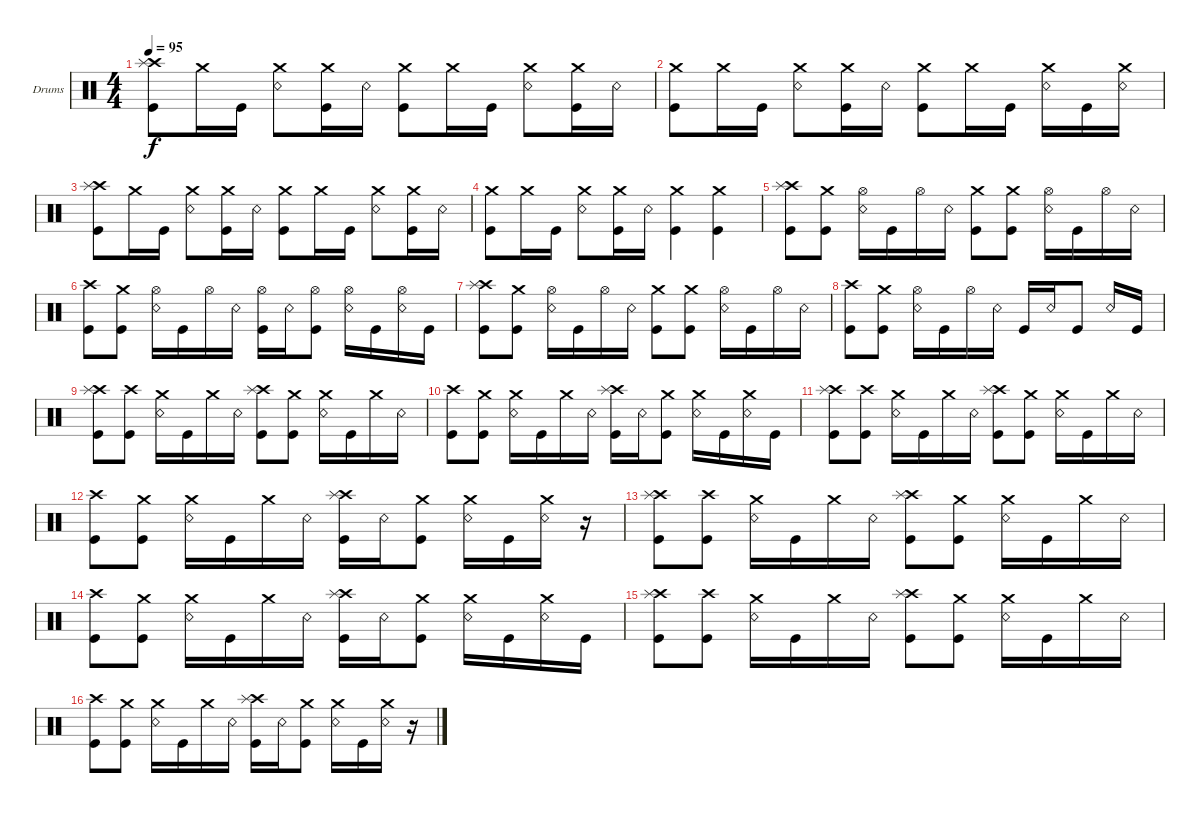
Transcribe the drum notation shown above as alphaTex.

\defaultSystemsLayout 4
\bracketExtendMode groupsimilarinstruments
\firstSystemTrackNameOrientation horizontal
\otherSystemsTrackNameOrientation horizontal
\track ("Drumkit" "Drums") {instrument percussion}
\staff {score}
\articulation defaults
\ts (4 4)
\tempo 95
\clef neutral
\ks c
("Kick (hit)" "Crash high (hit)" "Splash (hit)").8{dy f} "Crash medium (hit)".16 "Kick (hit)".16 ("Snare (rim shot)" "Crash medium (hit)").8 ("Kick (hit)" "Crash medium (hit)").16 "Snare (rim shot)".16 ("Kick (hit)" "Crash medium (hit)").8 "Crash medium (hit)".16 "Kick (hit)".16 ("Snare (rim shot)" "Crash medium (hit)").8 ("Kick (hit)" "Crash medium (hit)").16 "Snare (rim shot)".16 |
("Kick (hit)" "Crash medium (hit)").8 "Crash medium (hit)".16 "Kick (hit)".16 ("Snare (rim shot)" "Crash medium (hit)").8 ("Kick (hit)" "Crash medium (hit)").16 "Snare (rim shot)".16 ("Kick (hit)" "Crash medium (hit)").8 "Crash medium (hit)".16 "Kick (hit)".16 ("Snare (rim shot)" "Crash medium (hit)").16 "Kick (hit)".16 ("Snare (rim shot)" "Crash medium (hit)").16 |
("Kick (hit)" "Crash high (hit)" "Splash (hit)").8 "Crash medium (hit)".16 "Kick (hit)".16 ("Snare (rim shot)" "Crash medium (hit)").8 ("Kick (hit)" "Crash medium (hit)").16 "Snare (rim shot)".16 ("Kick (hit)" "Crash medium (hit)").8 "Crash medium (hit)".16 "Kick (hit)".16 ("Snare (rim shot)" "Crash medium (hit)").8 ("Kick (hit)" "Crash medium (hit)").16 "Snare (rim shot)".16 |
("Kick (hit)" "Crash medium (hit)").8 "Crash medium (hit)".16 "Kick (hit)".16 ("Snare (rim shot)" "Crash medium (hit)").8 ("Kick (hit)" "Crash medium (hit)").16 "Snare (rim shot)".16 ("Kick (hit)" "Crash medium (hit)").4 ("Kick (hit)" "Crash medium (hit)").4 |
("Kick (hit)" "Crash high (hit)" "Splash (hit)").8 ("Kick (hit)" "Crash medium (hit)").8 ("Snare (rim shot)" "Hi-Hat (open)").16 "Kick (hit)".16 "Hi-Hat (open)".16 "Snare (rim shot)".16 ("Kick (hit)" "Crash medium (hit)").8 ("Kick (hit)" "Crash medium (hit)").8 ("Snare (rim shot)" "Hi-Hat (open)").16 "Kick (hit)".16 "Hi-Hat (open)".16 "Snare (rim shot)".16 |
("Kick (hit)" "Crash high (hit)").8 ("Kick (hit)" "Crash medium (hit)").8 ("Snare (rim shot)" "Hi-Hat (open)").16 "Kick (hit)".16 "Hi-Hat (open)".16 "Snare (rim shot)".16 ("Kick (hit)" "Hi-Hat (open)").16 "Snare (rim shot)".16 ("Kick (hit)" "Hi-Hat (open)").8 ("Hi-Hat (open)" "Snare (rim shot)").16 "Kick (hit)".16 ("Hi-Hat (open)" "Snare (rim shot)").16 "Kick (hit)".16 |
("Kick (hit)" "Crash high (hit)" "Splash (hit)").8 ("Kick (hit)" "Crash medium (hit)").8 ("Snare (rim shot)" "Hi-Hat (open)").16 "Kick (hit)".16 "Hi-Hat (open)".16 "Snare (rim shot)".16 ("Kick (hit)" "Crash medium (hit)").8 ("Kick (hit)" "Crash medium (hit)").8 ("Snare (rim shot)" "Hi-Hat (open)").16 "Kick (hit)".16 "Hi-Hat (open)".16 "Snare (rim shot)".16 |
("Kick (hit)" "Crash high (hit)").8 ("Kick (hit)" "Crash medium (hit)").8 ("Snare (rim shot)" "Hi-Hat (open)").16 "Kick (hit)".16 "Hi-Hat (open)".16 "Snare (rim shot)".16 "Kick (hit)".16 "Snare (rim shot)".16 "Kick (hit)".8 "Snare (rim shot)".16 "Kick (hit)".16 |
("Kick (hit)" "Crash high (hit)" "Splash (hit)").8 ("Kick (hit)" "Crash high (hit)").8 ("Snare (rim shot)" "Crash medium (hit)").16 "Kick (hit)".16 "Crash medium (hit)".16 "Snare (rim shot)".16 ("Kick (hit)" "Crash high (hit)" "Splash (hit)").8 ("Kick (hit)" "Crash medium (hit)").8 ("Snare (rim shot)" "Crash medium (hit)").16 "Kick (hit)".16 "Crash medium (hit)".16 "Snare (rim shot)".16 |
("Kick (hit)" "Crash high (hit)").8 ("Kick (hit)" "Crash medium (hit)").8 ("Snare (rim shot)" "Crash medium (hit)").16 "Kick (hit)".16 "Crash medium (hit)".16 "Snare (rim shot)".16 ("Kick (hit)" "Crash high (hit)" "Splash (hit)").16 "Snare (rim shot)".16 ("Kick (hit)" "Crash medium (hit)").8 ("Snare (rim shot)" "Crash medium (hit)").16 "Kick (hit)".16 ("Snare (rim shot)" "Crash medium (hit)").16 "Kick (hit)".16 |
("Kick (hit)" "Crash high (hit)" "Splash (hit)").8 ("Kick (hit)" "Crash high (hit)").8 ("Snare (rim shot)" "Crash medium (hit)").16 "Kick (hit)".16 "Crash medium (hit)".16 "Snare (rim shot)".16 ("Kick (hit)" "Crash high (hit)" "Splash (hit)").8 ("Kick (hit)" "Crash medium (hit)").8 ("Snare (rim shot)" "Crash medium (hit)").16 "Kick (hit)".16 "Crash medium (hit)".16 "Snare (rim shot)".16 |
("Kick (hit)" "Crash high (hit)").8 ("Kick (hit)" "Crash medium (hit)").8 ("Snare (rim shot)" "Crash medium (hit)").16 "Kick (hit)".16 "Crash medium (hit)".16 "Snare (rim shot)".16 ("Kick (hit)" "Crash high (hit)" "Splash (hit)").16 "Snare (rim shot)".16 ("Kick (hit)" "Crash medium (hit)").8 ("Snare (rim shot)" "Crash medium (hit)").16 "Kick (hit)".16 ("Snare (rim shot)" "Crash medium (hit)").16 r.16 |
("Kick (hit)" "Crash high (hit)" "Splash (hit)").8 ("Kick (hit)" "Crash high (hit)").8 ("Snare (rim shot)" "Crash medium (hit)").16 "Kick (hit)".16 "Crash medium (hit)".16 "Snare (rim shot)".16 ("Kick (hit)" "Crash high (hit)" "Splash (hit)").8 ("Kick (hit)" "Crash medium (hit)").8 ("Snare (rim shot)" "Crash medium (hit)").16 "Kick (hit)".16 "Crash medium (hit)".16 "Snare (rim shot)".16 |
("Kick (hit)" "Crash high (hit)").8 ("Kick (hit)" "Crash medium (hit)").8 ("Snare (rim shot)" "Crash medium (hit)").16 "Kick (hit)".16 "Crash medium (hit)".16 "Snare (rim shot)".16 ("Kick (hit)" "Crash high (hit)" "Splash (hit)").16 "Snare (rim shot)".16 ("Kick (hit)" "Crash medium (hit)").8 ("Snare (rim shot)" "Crash medium (hit)").16 "Kick (hit)".16 ("Snare (rim shot)" "Crash medium (hit)").16 "Kick (hit)".16 |
("Kick (hit)" "Crash high (hit)" "Splash (hit)").8 ("Kick (hit)" "Crash high (hit)").8 ("Snare (rim shot)" "Crash medium (hit)").16 "Kick (hit)".16 "Crash medium (hit)".16 "Snare (rim shot)".16 ("Kick (hit)" "Crash high (hit)" "Splash (hit)").8 ("Kick (hit)" "Crash medium (hit)").8 ("Snare (rim shot)" "Crash medium (hit)").16 "Kick (hit)".16 "Crash medium (hit)".16 "Snare (rim shot)".16 |
("Kick (hit)" "Crash high (hit)").8 ("Kick (hit)" "Crash medium (hit)").8 ("Snare (rim shot)" "Crash medium (hit)").16 "Kick (hit)".16 "Crash medium (hit)".16 "Snare (rim shot)".16 ("Kick (hit)" "Crash high (hit)" "Splash (hit)").16 "Snare (rim shot)".16 ("Kick (hit)" "Crash medium (hit)").8 ("Snare (rim shot)" "Crash medium (hit)").16 "Kick (hit)".16 ("Snare (rim shot)" "Crash medium (hit)").16 r.16
